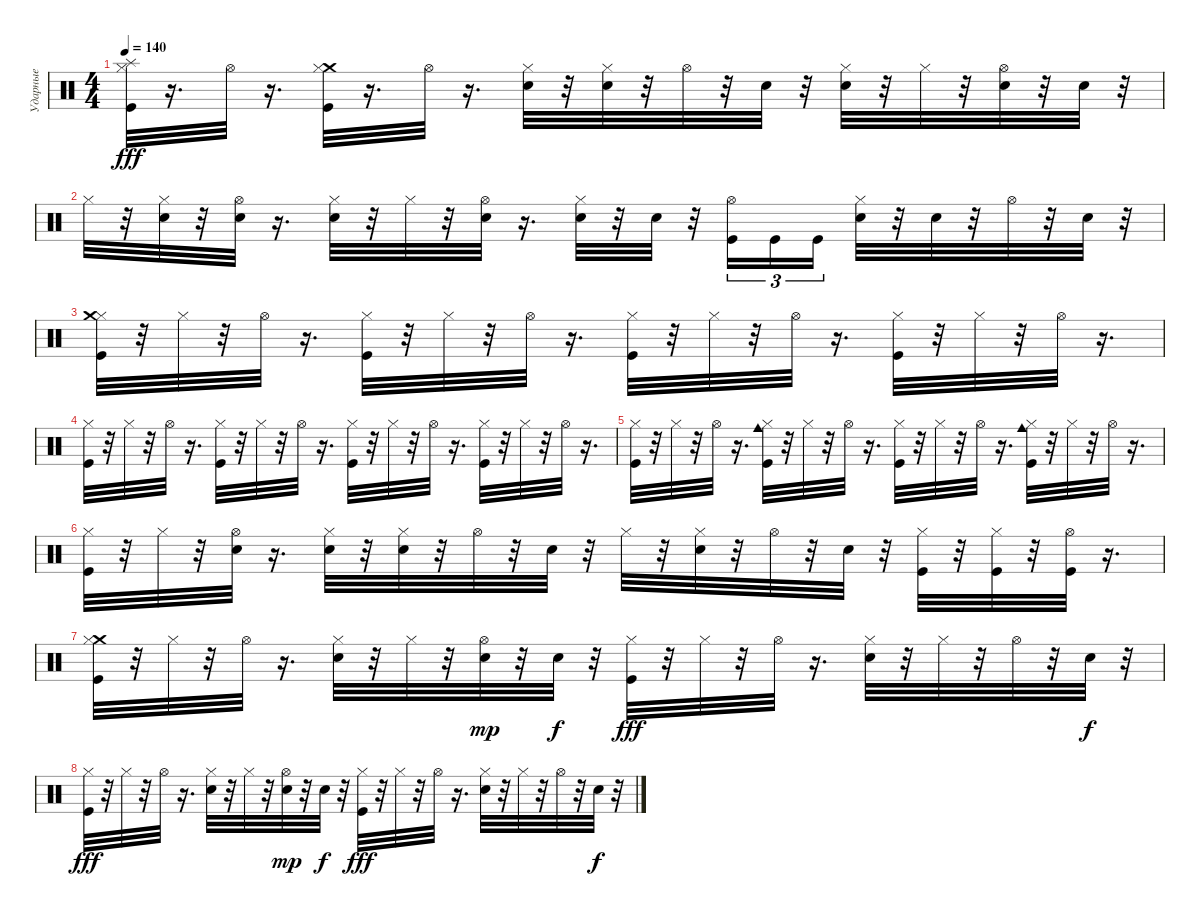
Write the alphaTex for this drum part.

\track ("Ударные" "Ударные") {instrument percussion}
\staff {score}
\articulation defaults
\ts (4 4)
\tempo 140
\clef neutral
\ks c
("Kick (hit)" "Hi-Hat (closed)" "Splash (hit)").32{dy fff} r.16{d} "Hi-Hat (open)".32 r.16{d} ("Kick (hit)" "Crash medium (hit)" "Hi-Hat (closed)").32 r.16{d} "Hi-Hat (open)".32 r.16{d} ("Hi-Hat (closed)" "Electric Snare (hit)").32 r.32 ("Hi-Hat (closed)" "Electric Snare (hit)").32 r.32 "Hi-Hat (open)".32 r.32 "Electric Snare (hit)".32 r.32 ("Hi-Hat (closed)" "Electric Snare (hit)").32 r.32 "Hi-Hat (closed)".32 r.32 ("Hi-Hat (open)" "Electric Snare (hit)").32 r.32 "Electric Snare (hit)".32 r.32 |
"Hi-Hat (closed)".32 r.32 ("Electric Snare (hit)" "Hi-Hat (closed)").32 r.32 ("Electric Snare (hit)" "Hi-Hat (open)").32 r.16{d} ("Electric Snare (hit)" "Hi-Hat (closed)").32 r.32 "Hi-Hat (closed)".32 r.32 ("Electric Snare (hit)" "Hi-Hat (open)").32 r.16{d} ("Hi-Hat (closed)" "Electric Snare (hit)").32 r.32 "Electric Snare (hit)".32 r.32 ("Hi-Hat (open)" "Kick (hit)").16{tu (3 2)} "Kick (hit)".16{tu (3 2)} "Kick (hit)".16{tu (3 2)} ("Hi-Hat (closed)" "Electric Snare (hit)").32 r.32 "Electric Snare (hit)".32 r.32 "Hi-Hat (open)".32 r.32 "Electric Snare (hit)".32 r.32 |
("Hi-Hat (closed)" "Crash medium (hit)" "Kick (hit)").32 r.32 "Hi-Hat (closed)".32 r.32 "Hi-Hat (open)".32 r.16{d} ("Hi-Hat (closed)" "Kick (hit)").32 r.32 "Hi-Hat (closed)".32 r.32 "Hi-Hat (open)".32 r.16{d} ("Hi-Hat (closed)" "Kick (hit)").32 r.32 "Hi-Hat (closed)".32 r.32 "Hi-Hat (open)".32 r.16{d} ("Hi-Hat (closed)" "Kick (hit)").32 r.32 "Hi-Hat (closed)".32 r.32 "Hi-Hat (open)".32 r.16{d} |
("Kick (hit)" "Hi-Hat (closed)").32 r.32 "Hi-Hat (closed)".32 r.32 "Hi-Hat (open)".32 r.16{d} ("Hi-Hat (closed)" "Kick (hit)").32 r.32 "Hi-Hat (closed)".32 r.32 "Hi-Hat (open)".32 r.16{d} ("Hi-Hat (closed)" "Kick (hit)").32 r.32 "Hi-Hat (closed)".32 r.32 "Hi-Hat (open)".32 r.16{d} ("Hi-Hat (closed)" "Kick (hit)").32 r.32 "Hi-Hat (closed)".32 r.32 "Hi-Hat (open)".32 r.16{d} |
("Kick (hit)" "Hi-Hat (closed)").32 r.32 "Hi-Hat (closed)".32 r.32 "Hi-Hat (open)".32 r.16{d} ("Hi-Hat (closed)" "Kick (hit)" "Cowbell medium (hit)").32 r.32 "Hi-Hat (closed)".32 r.32 "Hi-Hat (open)".32 r.16{d} ("Hi-Hat (closed)" "Kick (hit)").32 r.32 "Hi-Hat (closed)".32 r.32 "Hi-Hat (open)".32 r.16{d} ("Hi-Hat (closed)" "Kick (hit)" "Cowbell medium (hit)").32 r.32 "Hi-Hat (closed)".32 r.32 "Hi-Hat (open)".32 r.16{d} |
("Kick (hit)" "Hi-Hat (closed)").32 r.32 "Hi-Hat (closed)".32 r.32 ("Hi-Hat (open)" "Electric Snare (hit)").32 r.16{d} ("Hi-Hat (closed)" "Electric Snare (hit)").32 r.32 ("Hi-Hat (closed)" "Electric Snare (hit)").32 r.32 "Hi-Hat (open)".32 r.32 "Electric Snare (hit)".32 r.32 "Hi-Hat (closed)".32 r.32 ("Hi-Hat (closed)" "Electric Snare (hit)").32 r.32 "Hi-Hat (open)".32 r.32 "Electric Snare (hit)".32 r.32 ("Hi-Hat (closed)" "Kick (hit)").32 r.32 ("Hi-Hat (closed)" "Kick (hit)").32 r.32 ("Hi-Hat (open)" "Kick (hit)").32 r.16{d} |
("Crash medium (hit)" "Kick (hit)" "Hi-Hat (closed)").32 r.32 "Hi-Hat (closed)".32 r.32 "Hi-Hat (open)".32 r.16{d} ("Electric Snare (hit)" "Hi-Hat (closed)").32 r.32 "Hi-Hat (closed)".32 r.32 ("Hi-Hat (open)" "Electric Snare (hit)").32{dy mp} r.32 "Electric Snare (hit)".32{dy f} r.32 ("Kick (hit)" "Hi-Hat (closed)").32{dy fff} r.32 "Hi-Hat (closed)".32 r.32 "Hi-Hat (open)".32 r.16{d} ("Electric Snare (hit)" "Hi-Hat (closed)").32 r.32 "Hi-Hat (closed)".32 r.32 "Hi-Hat (open)".32 r.32 "Electric Snare (hit)".32{dy f} r.32 |
("Hi-Hat (closed)" "Kick (hit)").32{dy fff} r.32 "Hi-Hat (closed)".32 r.32 "Hi-Hat (open)".32 r.16{d} ("Electric Snare (hit)" "Hi-Hat (closed)").32 r.32 "Hi-Hat (closed)".32 r.32 ("Hi-Hat (open)" "Electric Snare (hit)").32{dy mp} r.32 "Electric Snare (hit)".32{dy f} r.32 ("Kick (hit)" "Hi-Hat (closed)").32{dy fff} r.32 "Hi-Hat (closed)".32 r.32 "Hi-Hat (open)".32 r.16{d} ("Electric Snare (hit)" "Hi-Hat (closed)").32 r.32 "Hi-Hat (closed)".32 r.32 "Hi-Hat (open)".32 r.32 "Electric Snare (hit)".32{dy f} r.32
